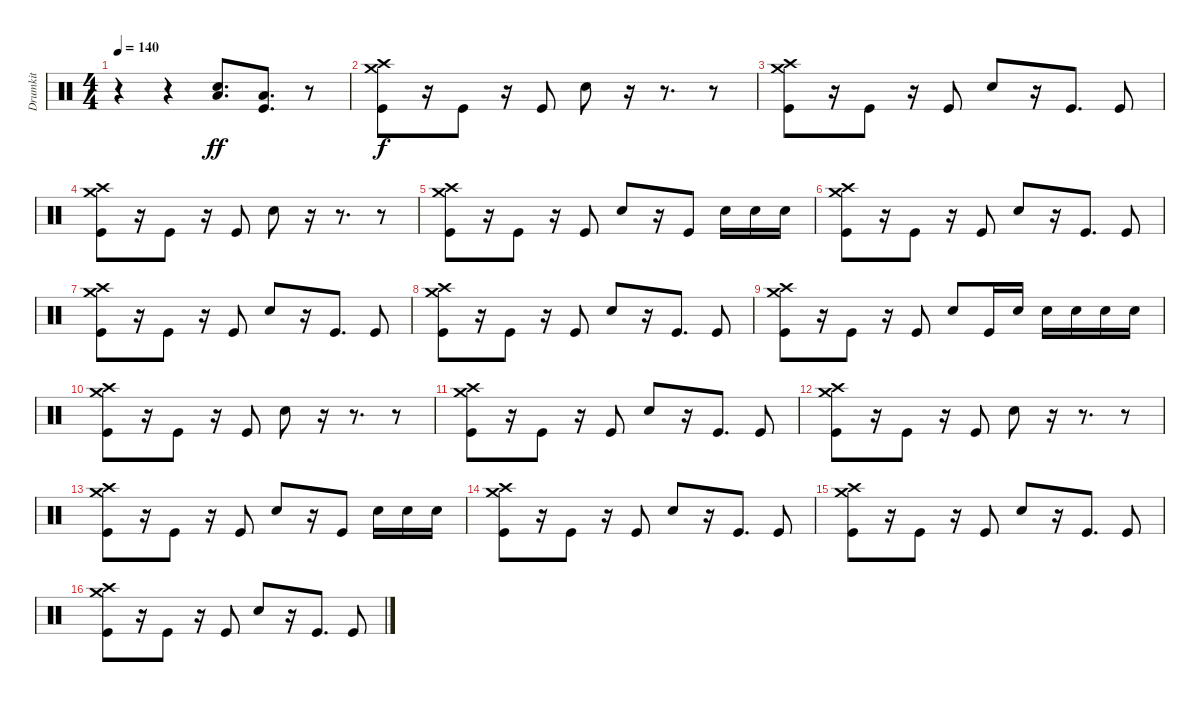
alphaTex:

\track ("Drumkit" "Drumkit") {instrument percussion}
\staff {score}
\articulation defaults
\ts (4 4)
\tempo 140
\clef neutral
\ks c
r.4{dy fff} r.4 ("Snare (hit) 2" "Low Tom (hit)").8{d dy ff} ("Kick (hit)" "Low Floor Tom (hit)").8{d} r.8 |
("Crash high (hit)" "Crash medium (hit)" "Kick (hit)").8{dy f} r.16 "Kick (hit)".8 r.16 "Kick (hit)".8 "Snare (hit) 2".8 r.16 r.8{d} r.8 |
("Crash high (hit)" "Crash medium (hit)" "Kick (hit)").8 r.16 "Kick (hit)".8 r.16 "Kick (hit)".8 "Snare (hit) 2".8 r.16 "Kick (hit)".8{d} "Kick (hit)".8 |
("Crash high (hit)" "Crash medium (hit)" "Kick (hit)").8 r.16 "Kick (hit)".8 r.16 "Kick (hit)".8 "Snare (hit) 2".8 r.16 r.8{d} r.8 |
("Crash high (hit)" "Crash medium (hit)" "Kick (hit)").8 r.16 "Kick (hit)".8 r.16 "Kick (hit)".8 "Snare (hit) 2".8 r.16 "Kick (hit)".8 "Snare (hit) 2".16 "Snare (hit) 2".16 "Snare (hit) 2".16 |
("Crash high (hit)" "Crash medium (hit)" "Kick (hit)").8 r.16 "Kick (hit)".8 r.16 "Kick (hit)".8 "Snare (hit) 2".8 r.16 "Kick (hit)".8{d} "Kick (hit)".8 |
("Crash high (hit)" "Crash medium (hit)" "Kick (hit)").8 r.16 "Kick (hit)".8 r.16 "Kick (hit)".8 "Snare (hit) 2".8 r.16 "Kick (hit)".8{d} "Kick (hit)".8 |
("Crash high (hit)" "Crash medium (hit)" "Kick (hit)").8 r.16 "Kick (hit)".8 r.16 "Kick (hit)".8 "Snare (hit) 2".8 r.16 "Kick (hit)".8{d} "Kick (hit)".8 |
("Crash high (hit)" "Crash medium (hit)" "Kick (hit)").8 r.16 "Kick (hit)".8 r.16 "Kick (hit)".8 "Snare (hit) 2".8 "Kick (hit)".16 "Snare (hit) 2".16 "Snare (hit) 2".16 "Snare (hit) 2".16 "Snare (hit) 2".16 "Snare (hit) 2".16 |
("Crash high (hit)" "Crash medium (hit)" "Kick (hit)").8 r.16 "Kick (hit)".8 r.16 "Kick (hit)".8 "Snare (hit) 2".8 r.16 r.8{d} r.8 |
("Crash high (hit)" "Crash medium (hit)" "Kick (hit)").8 r.16 "Kick (hit)".8 r.16 "Kick (hit)".8 "Snare (hit) 2".8 r.16 "Kick (hit)".8{d} "Kick (hit)".8 |
("Crash high (hit)" "Crash medium (hit)" "Kick (hit)").8 r.16 "Kick (hit)".8 r.16 "Kick (hit)".8 "Snare (hit) 2".8 r.16 r.8{d} r.8 |
("Crash high (hit)" "Crash medium (hit)" "Kick (hit)").8 r.16 "Kick (hit)".8 r.16 "Kick (hit)".8 "Snare (hit) 2".8 r.16 "Kick (hit)".8 "Snare (hit) 2".16 "Snare (hit) 2".16 "Snare (hit) 2".16 |
("Crash high (hit)" "Crash medium (hit)" "Kick (hit)").8 r.16 "Kick (hit)".8 r.16 "Kick (hit)".8 "Snare (hit) 2".8 r.16 "Kick (hit)".8{d} "Kick (hit)".8 |
("Crash high (hit)" "Crash medium (hit)" "Kick (hit)").8 r.16 "Kick (hit)".8 r.16 "Kick (hit)".8 "Snare (hit) 2".8 r.16 "Kick (hit)".8{d} "Kick (hit)".8 |
("Crash high (hit)" "Crash medium (hit)" "Kick (hit)").8 r.16 "Kick (hit)".8 r.16 "Kick (hit)".8 "Snare (hit) 2".8 r.16 "Kick (hit)".8{d} "Kick (hit)".8
